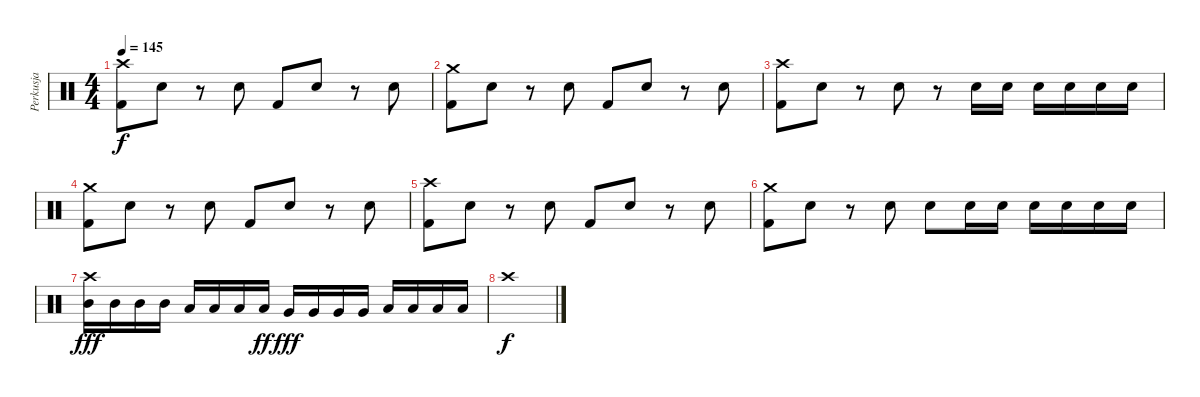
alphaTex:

\track ("Perkusja" "Perkusja") {instrument percussion}
\staff {score}
\articulation defaults
\ts (4 4)
\tempo 145
\clef neutral
\ks c
("Crash high (hit)" "Kick (hit) 2").8{dy f} "Electric Snare (hit)".8 r.8 "Electric Snare (hit)".8 "Kick (hit) 2".8 "Electric Snare (hit)".8 r.8 "Electric Snare (hit)".8 |
("Crash medium (hit)" "Kick (hit) 2").8 "Electric Snare (hit)".8 r.8 "Electric Snare (hit)".8 "Kick (hit) 2".8 "Electric Snare (hit)".8 r.8 "Electric Snare (hit)".8 |
("Crash high (hit)" "Kick (hit) 2").8 "Electric Snare (hit)".8 r.8 "Electric Snare (hit)".8 r.8 "Electric Snare (hit)".16 "Electric Snare (hit)".16 "Electric Snare (hit)".16 "Electric Snare (hit)".16 "Electric Snare (hit)".16 "Electric Snare (hit)".16 |
("Crash medium (hit)" "Kick (hit) 2").8 "Electric Snare (hit)".8 r.8 "Electric Snare (hit)".8 "Kick (hit) 2".8 "Electric Snare (hit)".8 r.8 "Electric Snare (hit)".8 |
("Crash high (hit)" "Kick (hit) 2").8 "Electric Snare (hit)".8 r.8 "Electric Snare (hit)".8 "Kick (hit) 2".8 "Electric Snare (hit)".8 r.8 "Electric Snare (hit)".8 |
("Crash medium (hit)" "Kick (hit) 2").8 "Electric Snare (hit)".8 r.8 "Electric Snare (hit)".8 "Electric Snare (hit)".8 "Electric Snare (hit)".16 "Electric Snare (hit)".16 "Electric Snare (hit)".16 "Electric Snare (hit)".16 "Electric Snare (hit)".16 "Electric Snare (hit)".16 |
("Crash high (hit)" "Mid Tom (hit)").16{dy fff} "Mid Tom (hit)".16 "Mid Tom (hit)".16 "Mid Tom (hit)".16 "Low Tom (hit)".16 "Low Tom (hit)".16 "Low Tom (hit)".16 "Low Tom (hit)".16{dy ff} "Very Low Tom (hit)".16{dy fff} "Very Low Tom (hit)".16 "Very Low Tom (hit)".16 "Very Low Tom (hit)".16 "Low Floor Tom (hit)".16 "Low Floor Tom (hit)".16 "Low Floor Tom (hit)".16 "Low Floor Tom (hit)".16 |
"Crash high (hit)".1{dy f volume 0}
